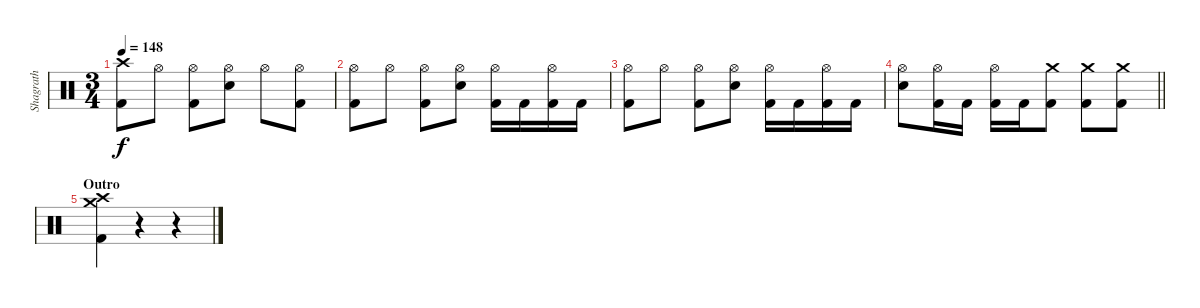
\track ("Shagrath" "Shagrath") {instrument percussion}
\staff {score}
\articulation defaults
\ts (3 4)
\tempo 148
\clef neutral
\ks c
("Crash high (hit)" "Kick (hit) 2").8{dy f} "Hi-Hat (open)".8 ("Hi-Hat (open)" "Kick (hit) 2").8 ("Hi-Hat (open)" "Electric Snare (hit)").8 "Hi-Hat (open)".8 ("Hi-Hat (open)" "Kick (hit) 2").8 |
("Hi-Hat (open)" "Kick (hit) 2").8 "Hi-Hat (open)".8 ("Hi-Hat (open)" "Kick (hit) 2").8 ("Hi-Hat (open)" "Electric Snare (hit)").8 ("Hi-Hat (open)" "Kick (hit) 2").16 "Kick (hit) 2".16 ("Hi-Hat (open)" "Kick (hit) 2").16 "Kick (hit) 2".16 |
("Hi-Hat (open)" "Kick (hit) 2").8 "Hi-Hat (open)".8 ("Hi-Hat (open)" "Kick (hit) 2").8 ("Hi-Hat (open)" "Electric Snare (hit)").8 ("Hi-Hat (open)" "Kick (hit) 2").16 "Kick (hit) 2".16 ("Hi-Hat (open)" "Kick (hit) 2").16 "Kick (hit) 2".16 |
\barLineRight lightlight
("Hi-Hat (open)" "Electric Snare (hit)").8 ("Hi-Hat (open)" "Kick (hit) 2").16 "Kick (hit) 2".16 ("Hi-Hat (open)" "Kick (hit) 2").16 "Kick (hit) 2".16 ("Crash medium (hit)" "Kick (hit) 2").8 ("Crash medium (hit)" "Kick (hit) 2").8 ("Crash medium (hit)" "Kick (hit) 2").8 |
\section ("" "Outro")
("Crash high (hit)" "Crash medium (hit)" "Kick (hit) 2").4 r.4 r.4
